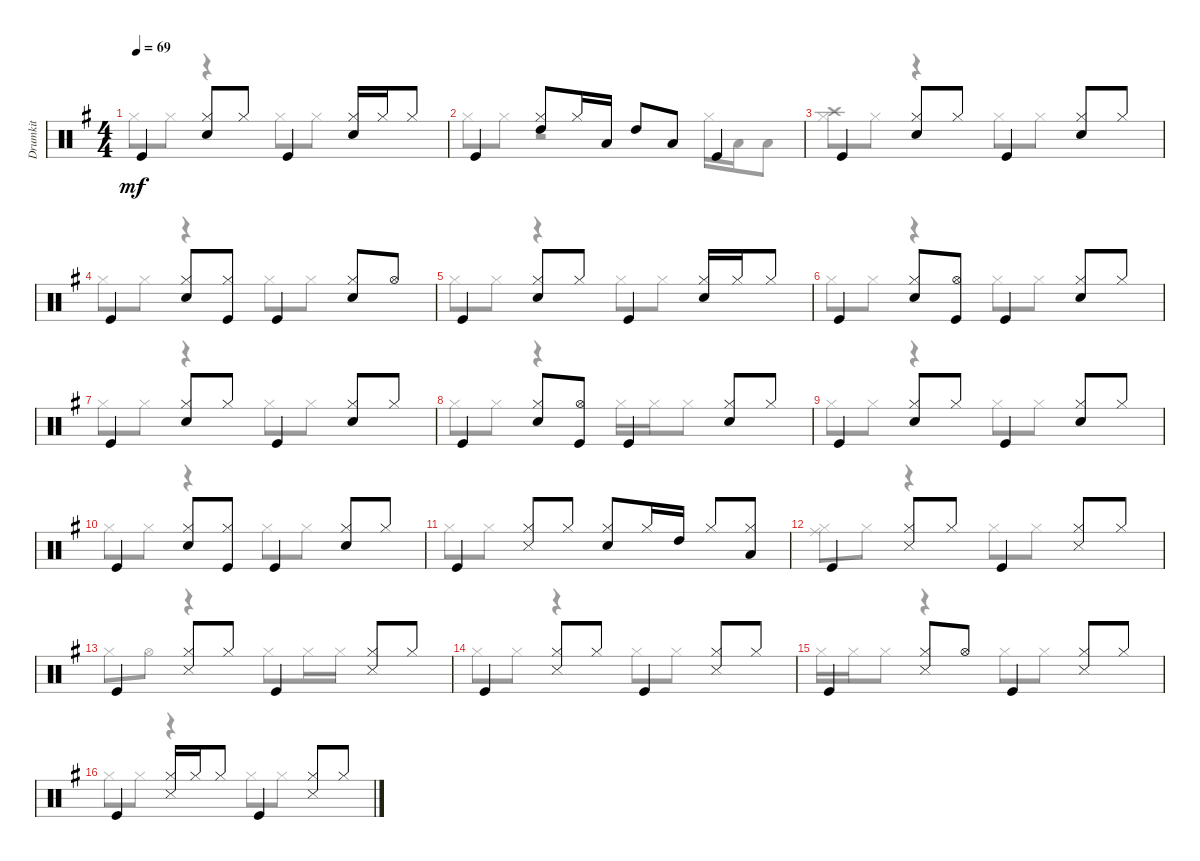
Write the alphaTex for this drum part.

\track ("Drumkit" "Drumkit") {instrument percussion}
\staff {score}
\articulation defaults
\voice
\ts (4 4)
\tempo 69
\clef neutral
\ks eminor "Kick (hit)".4{dy mf}
("Hi-Hat (closed)" "Snare (hit) 2").8 "Hi-Hat (closed)".8 "Kick (hit)".4 ("Hi-Hat (closed)" "Snare (hit) 2").16 "Hi-Hat (closed)".16 "Hi-Hat (closed)".8 |
"Kick (hit)".4 ("High Tom (hit)" "Hi-Hat (closed)").8 "Hi-Hat (closed)".16 "Low Tom (hit)".16 "High Tom (hit)".8 "Low Tom (hit)".8 "Kick (hit)".4 |
"Kick (hit)".4 ("Hi-Hat (closed)" "Snare (hit) 2").8 "Hi-Hat (closed)".8 "Kick (hit)".4 ("Snare (hit) 2" "Hi-Hat (closed)").8 "Hi-Hat (closed)".8 |
"Kick (hit)".4 ("Snare (hit) 2" "Hi-Hat (closed)").8 ("Hi-Hat (closed)" "Kick (hit)").8 "Kick (hit)".4 ("Hi-Hat (closed)" "Snare (hit) 2").8 "Hi-Hat (open)".8 |
"Kick (hit)".4 ("Hi-Hat (closed)" "Snare (hit) 2").8 "Hi-Hat (closed)".8 "Kick (hit)".4 ("Hi-Hat (closed)" "Snare (hit) 2").16 "Hi-Hat (closed)".16 "Hi-Hat (closed)".8 |
"Kick (hit)".4 ("Hi-Hat (closed)" "Snare (hit) 2").8 ("Kick (hit)" "Hi-Hat (open)").8 "Kick (hit)".4 ("Snare (hit) 2" "Hi-Hat (closed)").8 "Hi-Hat (closed)".8 |
"Kick (hit)".4 ("Hi-Hat (closed)" "Snare (hit) 2").8 "Hi-Hat (closed)".8 "Kick (hit)".4 ("Hi-Hat (closed)" "Snare (hit) 2").8 "Hi-Hat (closed)".8 |
"Kick (hit)".4 ("Hi-Hat (closed)" "Snare (hit) 2").8 ("Kick (hit)" "Hi-Hat (open)").8 "Kick (hit)".4 ("Snare (hit) 2" "Hi-Hat (closed)").8 "Hi-Hat (closed)".8 |
"Kick (hit)".4 ("Hi-Hat (closed)" "Snare (hit) 2").8 "Hi-Hat (closed)".8 "Kick (hit)".4 ("Snare (hit) 2" "Hi-Hat (closed)").8 "Hi-Hat (closed)".8 |
"Kick (hit)".4 ("Hi-Hat (closed)" "Snare (hit) 2").8 ("Hi-Hat (closed)" "Kick (hit)").8 "Kick (hit)".4 ("Snare (hit) 2" "Hi-Hat (closed)").8 "Hi-Hat (closed)".8 |
"Kick (hit)".4 ("Snare (side stick) 3" "Hi-Hat (closed)").8 "Hi-Hat (closed)".8 ("Hi-Hat (closed)" "Snare (hit) 2").8 "Hi-Hat (closed)".16 "High Tom (hit)".16 "Hi-Hat (closed)".8 ("Low Tom (hit)" "Hi-Hat (closed)").8 |
"Kick (hit)".4 ("Hi-Hat (closed)" "Snare (side stick) 3").8 "Hi-Hat (closed)".8 "Kick (hit)".4 ("Hi-Hat (closed)" "Snare (side stick) 3").8 "Hi-Hat (closed)".8 |
"Kick (hit)".4 ("Snare (side stick) 3" "Hi-Hat (closed)").8 "Hi-Hat (closed)".8 "Kick (hit)".4 ("Snare (side stick) 3" "Hi-Hat (closed)").8 "Hi-Hat (closed)".8 |
"Kick (hit)".4 ("Hi-Hat (closed)" "Snare (side stick) 3").8 "Hi-Hat (closed)".8 "Kick (hit)".4 ("Snare (side stick) 3" "Hi-Hat (closed)").8 "Hi-Hat (closed)".8 |
"Kick (hit)".4 ("Hi-Hat (closed)" "Snare (side stick) 3").8 "Hi-Hat (open)".8 "Kick (hit)".4 ("Snare (side stick) 3" "Hi-Hat (closed)").8 "Hi-Hat (closed)".8 |
"Kick (hit)".4 ("Snare (side stick) 3" "Hi-Hat (closed)").16 "Hi-Hat (closed)".16 "Hi-Hat (closed)".8 "Kick (hit)".4 ("Hi-Hat (closed)" "Snare (side stick) 3").8 "Hi-Hat (closed)".8
\voice
\clef neutral
\ottava regular
\simile none
\ks eminor "Hi-Hat (closed)".8{dy mf} "Hi-Hat (closed)".8
r.4 "Hi-Hat (closed)".8 "Hi-Hat (closed)".8 |
"Hi-Hat (closed)".8 "Hi-Hat (closed)".8 r.2 "Hi-Hat (closed)".16 "Low Tom (hit)".16 "Low Floor Tom (hit)".8 |
("Hi-Hat (closed)" "Crash high (hit)").8 "Hi-Hat (closed)".8 r.4 "Hi-Hat (closed)".8 "Hi-Hat (closed)".8 |
"Hi-Hat (closed)".8 "Hi-Hat (closed)".8 r.4 "Hi-Hat (closed)".8 "Hi-Hat (closed)".8 |
"Hi-Hat (closed)".8 "Hi-Hat (closed)".8 r.4 "Hi-Hat (closed)".8 "Hi-Hat (closed)".8 |
"Hi-Hat (closed)".8 "Hi-Hat (closed)".8 r.4 "Hi-Hat (closed)".8 "Hi-Hat (closed)".8 |
"Hi-Hat (closed)".8 "Hi-Hat (closed)".8 r.4 "Hi-Hat (closed)".8 "Hi-Hat (closed)".8 |
"Hi-Hat (closed)".8 "Hi-Hat (closed)".8 r.4 "Hi-Hat (closed)".16 "Hi-Hat (closed)".16 "Hi-Hat (closed)".8 |
"Hi-Hat (closed)".8 "Hi-Hat (closed)".8 r.4 "Hi-Hat (closed)".8 "Hi-Hat (closed)".8 |
"Hi-Hat (closed)".8 "Hi-Hat (closed)".8 r.4 "Hi-Hat (closed)".8 "Hi-Hat (closed)".8 |
"Hi-Hat (closed)".8 "Hi-Hat (closed)".8 |
("Hi-Hat (closed)" "Ride (middle)").8 "Hi-Hat (closed)".8 r.4 "Hi-Hat (closed)".8 "Hi-Hat (closed)".8 |
"Hi-Hat (closed)".8 "Hi-Hat (open)".8 r.4 "Hi-Hat (closed)".8 "Hi-Hat (closed)".16 "Hi-Hat (closed)".16 |
"Hi-Hat (closed)".8 "Hi-Hat (closed)".8 r.4 "Hi-Hat (closed)".8 "Hi-Hat (closed)".8 |
"Hi-Hat (closed)".16 "Hi-Hat (closed)".16 "Hi-Hat (closed)".8 r.4 "Hi-Hat (closed)".8 "Hi-Hat (closed)".8 |
"Hi-Hat (closed)".8 "Hi-Hat (closed)".8 r.4 "Hi-Hat (closed)".8 "Hi-Hat (closed)".8
